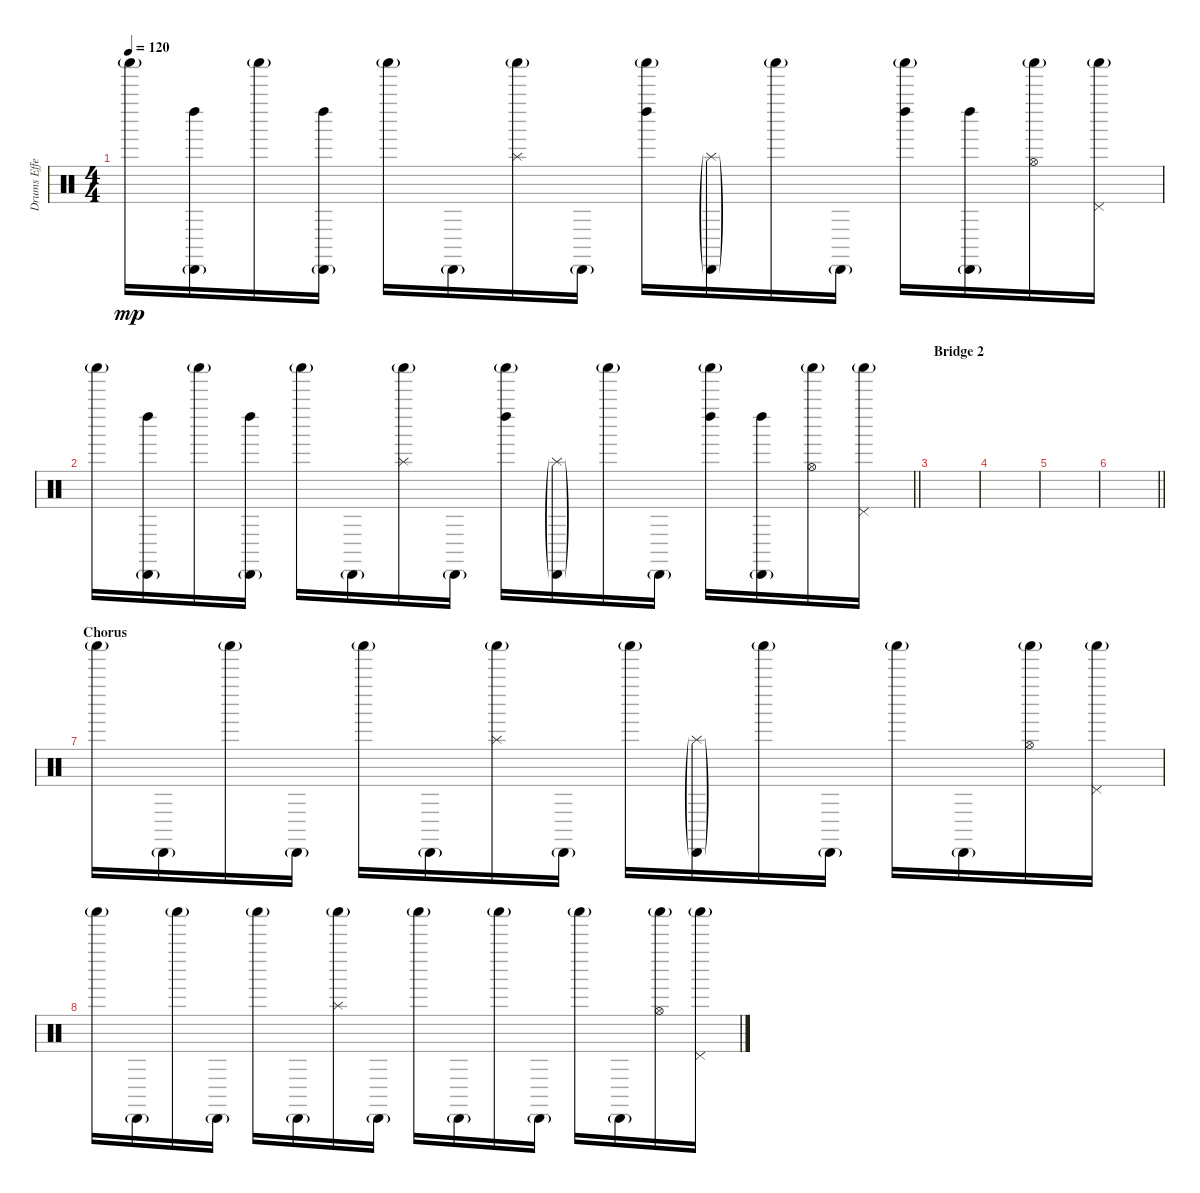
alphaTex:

\track ("Drums Effects" "Drums Effe") {instrument percussion}
\staff {score}
\articulation defaults
\ts (4 4)
\tempo 120
\clef neutral
\ks c "Shaker (hit)"{g}.16{dy mp}
("Cabasa (hit)"{g} "Left Maraca (hit)").16 "Shaker (hit)"{g}.16 ("Cabasa (hit)"{g} "Left Maraca (hit)").16 "Shaker (hit)"{g}.16 "Cabasa (hit)"{g}.16 ("Shaker (hit)"{g} "Splash (hit)").16 "Cabasa (hit)"{g}.16 ("Shaker (hit)"{g} "Left Maraca (hit)").16 ("Cabasa (hit)"{g} "Splash (hit)"{g}).16 "Shaker (hit)"{g}.16 "Cabasa (hit)"{g}.16 ("Shaker (hit)"{g} "Left Maraca (hit)").16 ("Cabasa (hit)"{g} "Left Maraca (hit)").16 ("Shaker (hit)"{g} "Hi-Hat (open)").16 ("Shaker (hit)"{g} "Pedal Hi-Hat (hit)").16 |
\barLineRight lightlight "Shaker (hit)"{g}.16
("Cabasa (hit)"{g} "Left Maraca (hit)").16 "Shaker (hit)"{g}.16 ("Cabasa (hit)"{g} "Left Maraca (hit)").16 "Shaker (hit)"{g}.16 "Cabasa (hit)"{g}.16 ("Shaker (hit)"{g} "Splash (hit)").16 "Cabasa (hit)"{g}.16 ("Shaker (hit)"{g} "Left Maraca (hit)").16 ("Cabasa (hit)"{g} "Splash (hit)"{g}).16 "Shaker (hit)"{g}.16 "Cabasa (hit)"{g}.16 ("Shaker (hit)"{g} "Left Maraca (hit)").16 ("Cabasa (hit)"{g} "Left Maraca (hit)").16 ("Shaker (hit)"{g} "Hi-Hat (open)").16 ("Shaker (hit)"{g} "Pedal Hi-Hat (hit)").16 |
\section ("" "Bridge 2")
|
|
|
\barLineRight lightlight
|
\section ("" "Chorus")
"Shaker (hit)"{g}.16 "Cabasa (hit)"{g}.16 "Shaker (hit)"{g}.16 "Cabasa (hit)"{g}.16 "Shaker (hit)"{g}.16 "Cabasa (hit)"{g}.16 ("Shaker (hit)"{g} "Splash (hit)").16 "Cabasa (hit)"{g}.16 "Shaker (hit)"{g}.16 ("Cabasa (hit)"{g} "Splash (hit)"{g}).16 "Shaker (hit)"{g}.16 "Cabasa (hit)"{g}.16 "Shaker (hit)"{g}.16 "Cabasa (hit)"{g}.16 ("Shaker (hit)"{g} "Hi-Hat (open)").16 ("Shaker (hit)"{g} "Pedal Hi-Hat (hit)").16 |
"Shaker (hit)"{g}.16 "Cabasa (hit)"{g}.16 "Shaker (hit)"{g}.16 "Cabasa (hit)"{g}.16 "Shaker (hit)"{g}.16 "Cabasa (hit)"{g}.16 ("Shaker (hit)"{g} "Splash (hit)").16 "Cabasa (hit)"{g}.16 "Shaker (hit)"{g}.16 "Cabasa (hit)"{g}.16 "Shaker (hit)"{g}.16 "Cabasa (hit)"{g}.16 "Shaker (hit)"{g}.16 "Cabasa (hit)"{g}.16 ("Shaker (hit)"{g} "Hi-Hat (open)").16 ("Shaker (hit)"{g} "Pedal Hi-Hat (hit)").16
